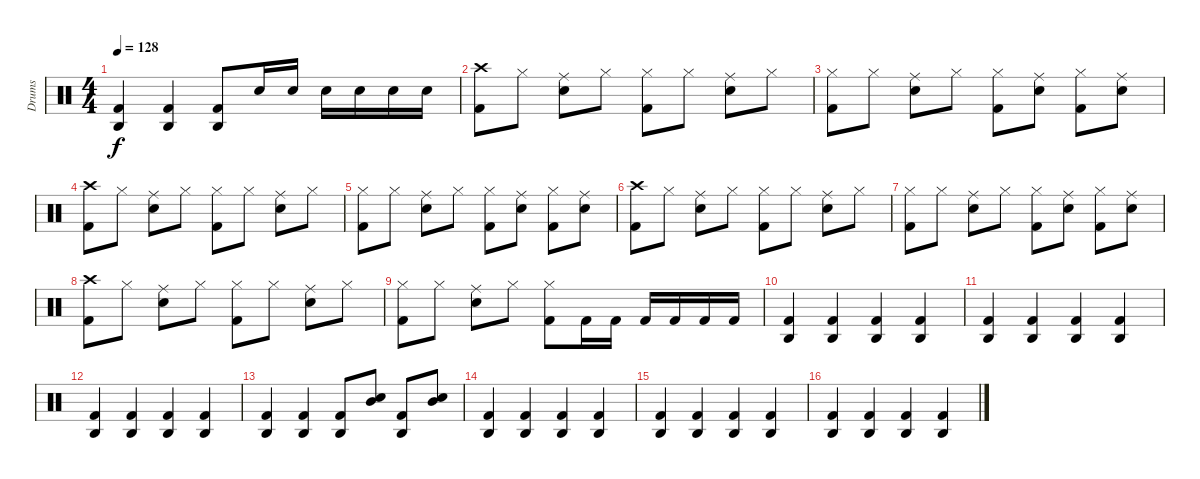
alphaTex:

\track ("Drums" "Drums") {instrument percussion}
\staff {score}
\articulation defaults
\ts (4 4)
\tempo 128
\clef neutral
\ks c
("Agogo high (hit)" "Kick (hit) 2").4{dy f} ("Agogo high (hit)" "Kick (hit) 2").4 ("Agogo high (hit)" "Kick (hit) 2").8 "Snare (hit) 2".16 "Snare (hit) 2".16 "Snare (hit) 2".16 "Snare (hit) 2".16 "Snare (hit) 2".16 "Snare (hit) 2".16 |
("Crash high (hit)" "Kick (hit) 2").8 "Hi-Hat (closed)".8 ("Ride (middle)" "Snare (hit) 2").8 "Hi-Hat (closed)".8 ("Hi-Hat (closed)" "Kick (hit) 2").8 "Hi-Hat (closed)".8 ("Ride (middle)" "Snare (hit) 2").8 "Hi-Hat (closed)".8 |
("Hi-Hat (closed)" "Kick (hit) 2").8 "Hi-Hat (closed)".8 ("Ride (middle)" "Snare (hit) 2").8 "Hi-Hat (closed)".8 ("Hi-Hat (closed)" "Kick (hit) 2").8 ("Ride (middle)" "Snare (hit) 2").8 ("Hi-Hat (closed)" "Kick (hit) 2").8 ("Ride (middle)" "Snare (hit) 2").8 |
("Crash high (hit)" "Kick (hit) 2").8 "Hi-Hat (closed)".8 ("Ride (middle)" "Snare (hit) 2").8 "Hi-Hat (closed)".8 ("Hi-Hat (closed)" "Kick (hit) 2").8 "Hi-Hat (closed)".8 ("Ride (middle)" "Snare (hit) 2").8 "Hi-Hat (closed)".8 |
("Hi-Hat (closed)" "Kick (hit) 2").8 "Hi-Hat (closed)".8 ("Ride (middle)" "Snare (hit) 2").8 "Hi-Hat (closed)".8 ("Hi-Hat (closed)" "Kick (hit) 2").8 ("Ride (middle)" "Snare (hit) 2").8 ("Hi-Hat (closed)" "Kick (hit) 2").8 ("Ride (middle)" "Snare (hit) 2").8 |
("Crash high (hit)" "Kick (hit) 2").8 "Hi-Hat (closed)".8 ("Ride (middle)" "Snare (hit) 2").8 "Hi-Hat (closed)".8 ("Hi-Hat (closed)" "Kick (hit) 2").8 "Hi-Hat (closed)".8 ("Ride (middle)" "Snare (hit) 2").8 "Hi-Hat (closed)".8 |
("Hi-Hat (closed)" "Kick (hit) 2").8 "Hi-Hat (closed)".8 ("Ride (middle)" "Snare (hit) 2").8 "Hi-Hat (closed)".8 ("Hi-Hat (closed)" "Kick (hit) 2").8 ("Ride (middle)" "Snare (hit) 2").8 ("Hi-Hat (closed)" "Kick (hit) 2").8 ("Ride (middle)" "Snare (hit) 2").8 |
("Crash high (hit)" "Kick (hit) 2").8 "Hi-Hat (closed)".8 ("Ride (middle)" "Snare (hit) 2").8 "Hi-Hat (closed)".8 ("Hi-Hat (closed)" "Kick (hit) 2").8 "Hi-Hat (closed)".8 ("Ride (middle)" "Snare (hit) 2").8 "Hi-Hat (closed)".8 |
("Hi-Hat (closed)" "Kick (hit) 2").8 "Hi-Hat (closed)".8 ("Ride (middle)" "Snare (hit) 2").8 "Hi-Hat (closed)".8 ("Hi-Hat (closed)" "Kick (hit) 2").8 "Kick (hit) 2".16 "Kick (hit) 2".16 "Kick (hit) 2".16 "Kick (hit) 2".16 "Kick (hit) 2".16 "Kick (hit) 2".16 |
("Agogo high (hit)" "Kick (hit) 2").4 ("Agogo high (hit)" "Kick (hit) 2").4 ("Agogo high (hit)" "Kick (hit) 2").4 ("Agogo high (hit)" "Kick (hit) 2").4 |
("Agogo high (hit)" "Kick (hit) 2").4 ("Agogo high (hit)" "Kick (hit) 2").4 ("Agogo high (hit)" "Kick (hit) 2").4 ("Agogo high (hit)" "Kick (hit) 2").4 |
("Agogo high (hit)" "Kick (hit) 2").4 ("Agogo high (hit)" "Kick (hit) 2").4 ("Agogo high (hit)" "Kick (hit) 2").4 ("Agogo high (hit)" "Kick (hit) 2").4 |
("Agogo high (hit)" "Kick (hit) 2").4 ("Agogo high (hit)" "Kick (hit) 2").4 ("Agogo high (hit)" "Kick (hit) 2").8 ("Mid Tom (hit)" "Snare (hit) 2").8 ("Agogo high (hit)" "Kick (hit) 2").8 ("Mid Tom (hit)" "Snare (hit) 2").8 |
("Agogo high (hit)" "Kick (hit) 2").4 ("Agogo high (hit)" "Kick (hit) 2").4 ("Agogo high (hit)" "Kick (hit) 2").4 ("Agogo high (hit)" "Kick (hit) 2").4 |
("Agogo high (hit)" "Kick (hit) 2").4 ("Agogo high (hit)" "Kick (hit) 2").4 ("Agogo high (hit)" "Kick (hit) 2").4 ("Agogo high (hit)" "Kick (hit) 2").4 |
("Agogo high (hit)" "Kick (hit) 2").4 ("Agogo high (hit)" "Kick (hit) 2").4 ("Agogo high (hit)" "Kick (hit) 2").4 ("Agogo high (hit)" "Kick (hit) 2").4
